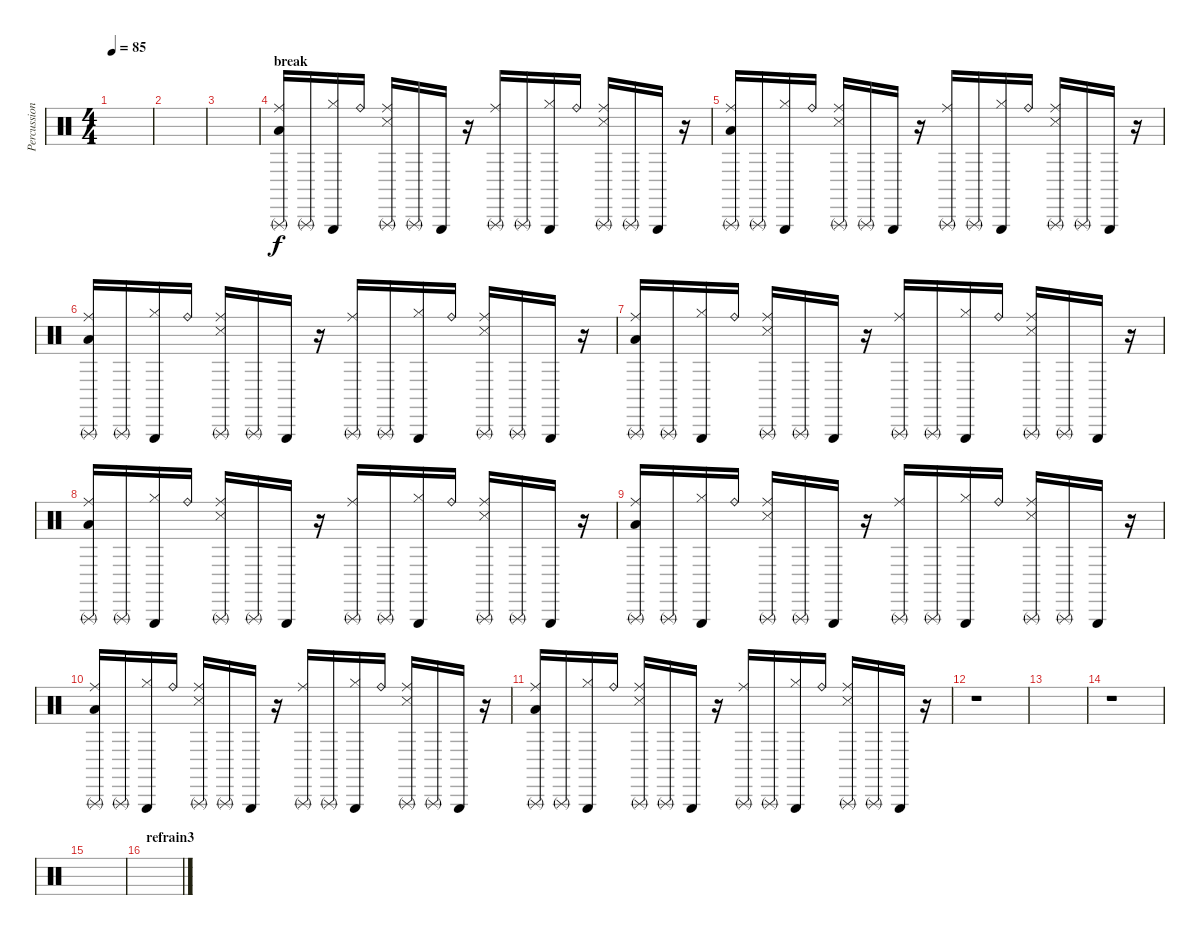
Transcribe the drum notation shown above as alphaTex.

\track ("Percussions" "Percussion") {instrument percussion}
\staff {score}
\articulation defaults
\ts (4 4)
\tempo 85
\clef neutral
\ks c
|
|
|
\section ("" "break")
("Low Floor Tom (hit)" "Ride (middle)" "Triangle (rnute)").16 "Triangle (rnute)".16 ("Hi-Hat (closed)" "Triangle (hit)").16 "Ride (bell)".16 ("Snare (side stick) 3" "Ride (middle)" "Triangle (rnute)").16 "Triangle (rnute)".16 "Triangle (hit)".16 r.16 ("Ride (middle)" "Triangle (rnute)").16 "Triangle (rnute)".16 ("Hi-Hat (closed)" "Triangle (hit)").16 "Ride (bell)".16 ("Snare (side stick) 3" "Ride (middle)" "Triangle (rnute)").16 "Triangle (rnute)".16 "Triangle (hit)".16 r.16 |
("Low Floor Tom (hit)" "Ride (middle)" "Triangle (rnute)").16 "Triangle (rnute)".16 ("Hi-Hat (closed)" "Triangle (hit)").16 "Ride (bell)".16 ("Snare (side stick) 3" "Ride (middle)" "Triangle (rnute)").16 "Triangle (rnute)".16 "Triangle (hit)".16 r.16 ("Ride (middle)" "Triangle (rnute)").16 "Triangle (rnute)".16 ("Hi-Hat (closed)" "Triangle (hit)").16 "Ride (bell)".16 ("Snare (side stick) 3" "Ride (middle)" "Triangle (rnute)").16 "Triangle (rnute)".16 "Triangle (hit)".16 r.16 |
("Low Floor Tom (hit)" "Ride (middle)" "Triangle (rnute)").16 "Triangle (rnute)".16 ("Hi-Hat (closed)" "Triangle (hit)").16 "Ride (bell)".16 ("Snare (side stick) 3" "Ride (middle)" "Triangle (rnute)").16 "Triangle (rnute)".16 "Triangle (hit)".16 r.16 ("Ride (middle)" "Triangle (rnute)").16 "Triangle (rnute)".16 ("Hi-Hat (closed)" "Triangle (hit)").16 "Ride (bell)".16 ("Snare (side stick) 3" "Ride (middle)" "Triangle (rnute)").16 "Triangle (rnute)".16 "Triangle (hit)".16 r.16 |
("Low Floor Tom (hit)" "Ride (middle)" "Triangle (rnute)").16 "Triangle (rnute)".16 ("Hi-Hat (closed)" "Triangle (hit)").16 "Ride (bell)".16 ("Snare (side stick) 3" "Ride (middle)" "Triangle (rnute)").16 "Triangle (rnute)".16 "Triangle (hit)".16 r.16 ("Ride (middle)" "Triangle (rnute)").16 "Triangle (rnute)".16 ("Hi-Hat (closed)" "Triangle (hit)").16 "Ride (bell)".16 ("Snare (side stick) 3" "Ride (middle)" "Triangle (rnute)").16 "Triangle (rnute)".16 "Triangle (hit)".16 r.16 |
("Low Floor Tom (hit)" "Ride (middle)" "Triangle (rnute)").16 "Triangle (rnute)".16 ("Hi-Hat (closed)" "Triangle (hit)").16 "Ride (bell)".16 ("Snare (side stick) 3" "Ride (middle)" "Triangle (rnute)").16 "Triangle (rnute)".16 "Triangle (hit)".16 r.16 ("Ride (middle)" "Triangle (rnute)").16 "Triangle (rnute)".16 ("Hi-Hat (closed)" "Triangle (hit)").16 "Ride (bell)".16 ("Snare (side stick) 3" "Ride (middle)" "Triangle (rnute)").16 "Triangle (rnute)".16 "Triangle (hit)".16 r.16 |
("Low Floor Tom (hit)" "Ride (middle)" "Triangle (rnute)").16 "Triangle (rnute)".16 ("Hi-Hat (closed)" "Triangle (hit)").16 "Ride (bell)".16 ("Snare (side stick) 3" "Ride (middle)" "Triangle (rnute)").16 "Triangle (rnute)".16 "Triangle (hit)".16 r.16 ("Ride (middle)" "Triangle (rnute)").16 "Triangle (rnute)".16 ("Hi-Hat (closed)" "Triangle (hit)").16 "Ride (bell)".16 ("Snare (side stick) 3" "Ride (middle)" "Triangle (rnute)").16 "Triangle (rnute)".16 "Triangle (hit)".16 r.16 |
("Low Floor Tom (hit)" "Ride (middle)" "Triangle (rnute)").16 "Triangle (rnute)".16 ("Hi-Hat (closed)" "Triangle (hit)").16 "Ride (bell)".16 ("Snare (side stick) 3" "Ride (middle)" "Triangle (rnute)").16 "Triangle (rnute)".16 "Triangle (hit)".16 r.16 ("Ride (middle)" "Triangle (rnute)").16 "Triangle (rnute)".16 ("Hi-Hat (closed)" "Triangle (hit)").16 "Ride (bell)".16 ("Snare (side stick) 3" "Ride (middle)" "Triangle (rnute)").16 "Triangle (rnute)".16 "Triangle (hit)".16 r.16 |
("Low Floor Tom (hit)" "Ride (middle)" "Triangle (rnute)").16 "Triangle (rnute)".16 ("Hi-Hat (closed)" "Triangle (hit)").16 "Ride (bell)".16 ("Snare (side stick) 3" "Ride (middle)" "Triangle (rnute)").16 "Triangle (rnute)".16 "Triangle (hit)".16 r.16 ("Ride (middle)" "Triangle (rnute)").16 "Triangle (rnute)".16 ("Hi-Hat (closed)" "Triangle (hit)").16 "Ride (bell)".16 ("Snare (side stick) 3" "Ride (middle)" "Triangle (rnute)").16 "Triangle (rnute)".16 "Triangle (hit)".16 r.16 |
r.1 |
|
r.1 |
|
\section ("" "refrain3")
